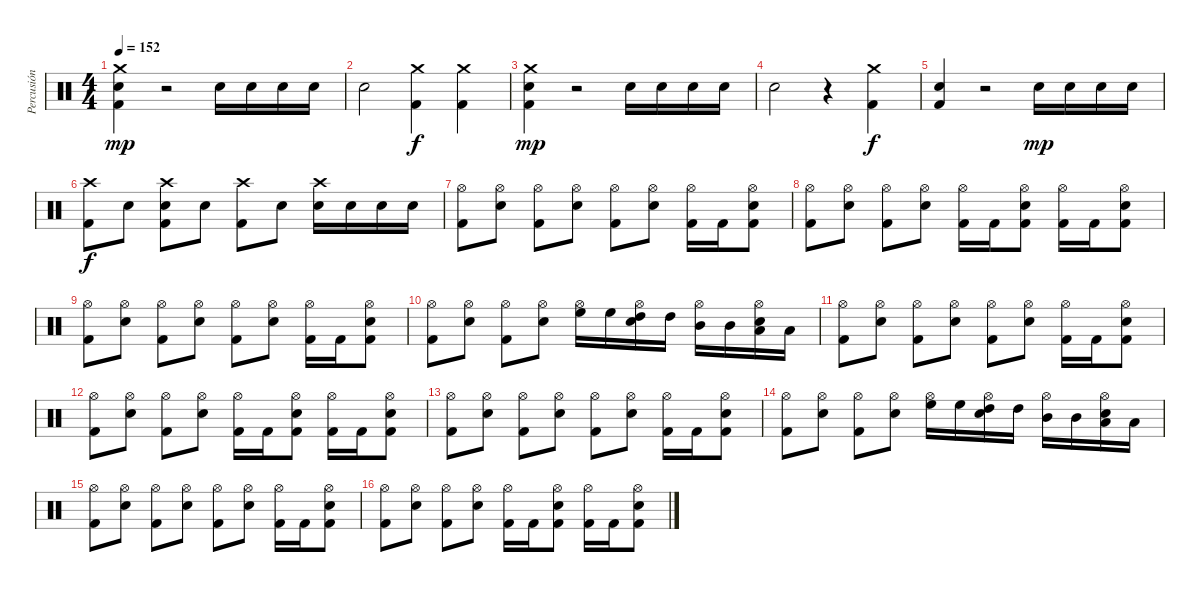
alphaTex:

\track ("Percusión" "Percusión") {instrument percussion}
\staff {score}
\articulation defaults
\ts (4 4)
\tempo 152
\clef neutral
\ks c
("Crash medium (hit)" "Snare (hit) 2" "Kick (hit) 2").4{dy mp} r.2 "Snare (hit) 2".16 "Snare (hit) 2".16 "Snare (hit) 2".16 "Snare (hit) 2".16 |
"Snare (hit) 2".2 ("Crash medium (hit)" "Kick (hit) 2").4{dy f} ("Crash medium (hit)" "Kick (hit) 2").4 |
("Crash medium (hit)" "Snare (hit) 2" "Kick (hit) 2").4{dy mp} r.2 "Snare (hit) 2".16 "Snare (hit) 2".16 "Snare (hit) 2".16 "Snare (hit) 2".16 |
"Snare (hit) 2".2 r.4 ("Crash medium (hit)" "Kick (hit) 2").4{dy f} |
("Snare (hit) 2" "Kick (hit) 2").4 r.2 "Snare (hit) 2".16{dy mp} "Snare (hit) 2".16 "Snare (hit) 2".16 "Snare (hit) 2".16 |
("Crash high (hit)" "Kick (hit) 2").8{dy f} "Snare (hit) 2".8 ("Crash high (hit)" "Snare (hit) 2" "Kick (hit) 2").8 "Snare (hit) 2".8 ("Crash high (hit)" "Kick (hit) 2").8 "Snare (hit) 2".8 ("Crash high (hit)" "Snare (hit) 2").16 "Snare (hit) 2".16 "Snare (hit) 2".16 "Snare (hit) 2".16 |
("Hi-Hat (open)" "Kick (hit) 2").8 ("Hi-Hat (open)" "Snare (hit) 2").8 ("Hi-Hat (open)" "Kick (hit) 2").8 ("Hi-Hat (open)" "Snare (hit) 2").8 ("Hi-Hat (open)" "Kick (hit) 2").8 ("Hi-Hat (open)" "Snare (hit) 2").8 ("Hi-Hat (open)" "Kick (hit) 2").16 "Kick (hit) 2".16 ("Hi-Hat (open)" "Snare (hit) 2" "Kick (hit) 2").8 |
("Hi-Hat (open)" "Kick (hit) 2").8 ("Hi-Hat (open)" "Snare (hit) 2").8 ("Hi-Hat (open)" "Kick (hit) 2").8 ("Hi-Hat (open)" "Snare (hit) 2").8 ("Hi-Hat (open)" "Kick (hit) 2").16 "Kick (hit) 2".16 ("Hi-Hat (open)" "Snare (hit) 2" "Kick (hit) 2").8 ("Hi-Hat (open)" "Kick (hit) 2").16 "Kick (hit) 2".16 ("Hi-Hat (open)" "Snare (hit) 2" "Kick (hit) 2").8 |
("Hi-Hat (open)" "Kick (hit) 2").8 ("Hi-Hat (open)" "Snare (hit) 2").8 ("Hi-Hat (open)" "Kick (hit) 2").8 ("Hi-Hat (open)" "Snare (hit) 2").8 ("Hi-Hat (open)" "Kick (hit) 2").8 ("Hi-Hat (open)" "Snare (hit) 2").8 ("Hi-Hat (open)" "Kick (hit) 2").16 "Kick (hit) 2".16 ("Hi-Hat (open)" "Snare (hit) 2" "Kick (hit) 2").8 |
("Hi-Hat (open)" "Kick (hit) 2").8 ("Hi-Hat (open)" "Snare (hit) 2").8 ("Hi-Hat (open)" "Kick (hit) 2").8 ("Hi-Hat (open)" "Snare (hit) 2").8 ("Hi-Hat (open)" "High Floor Tom (hit)").16 "High Floor Tom (hit)".16 ("Hi-Hat (open)" "Snare (hit) 2" "High Tom (hit)").16 "High Tom (hit)".16 ("Hi-Hat (open)" "Mid Tom (hit)").16 "Mid Tom (hit)".16 ("Hi-Hat (open)" "Snare (hit) 2" "Low Tom (hit)").16 "Low Tom (hit)".16 |
("Hi-Hat (open)" "Kick (hit) 2").8 ("Hi-Hat (open)" "Snare (hit) 2").8 ("Hi-Hat (open)" "Kick (hit) 2").8 ("Hi-Hat (open)" "Snare (hit) 2").8 ("Hi-Hat (open)" "Kick (hit) 2").8 ("Hi-Hat (open)" "Snare (hit) 2").8 ("Hi-Hat (open)" "Kick (hit) 2").16 "Kick (hit) 2".16 ("Hi-Hat (open)" "Snare (hit) 2" "Kick (hit) 2").8 |
("Hi-Hat (open)" "Kick (hit) 2").8 ("Hi-Hat (open)" "Snare (hit) 2").8 ("Hi-Hat (open)" "Kick (hit) 2").8 ("Hi-Hat (open)" "Snare (hit) 2").8 ("Hi-Hat (open)" "Kick (hit) 2").16 "Kick (hit) 2".16 ("Hi-Hat (open)" "Snare (hit) 2" "Kick (hit) 2").8 ("Hi-Hat (open)" "Kick (hit) 2").16 "Kick (hit) 2".16 ("Hi-Hat (open)" "Snare (hit) 2" "Kick (hit) 2").8 |
("Hi-Hat (open)" "Kick (hit) 2").8 ("Hi-Hat (open)" "Snare (hit) 2").8 ("Hi-Hat (open)" "Kick (hit) 2").8 ("Hi-Hat (open)" "Snare (hit) 2").8 ("Hi-Hat (open)" "Kick (hit) 2").8 ("Hi-Hat (open)" "Snare (hit) 2").8 ("Hi-Hat (open)" "Kick (hit) 2").16 "Kick (hit) 2".16 ("Hi-Hat (open)" "Snare (hit) 2" "Kick (hit) 2").8 |
("Hi-Hat (open)" "Kick (hit) 2").8 ("Hi-Hat (open)" "Snare (hit) 2").8 ("Hi-Hat (open)" "Kick (hit) 2").8 ("Hi-Hat (open)" "Snare (hit) 2").8 ("Hi-Hat (open)" "High Floor Tom (hit)").16 "High Floor Tom (hit)".16 ("Hi-Hat (open)" "Snare (hit) 2" "High Tom (hit)").16 "High Tom (hit)".16 ("Hi-Hat (open)" "Mid Tom (hit)").16 "Mid Tom (hit)".16 ("Hi-Hat (open)" "Snare (hit) 2" "Low Tom (hit)").16 "Low Tom (hit)".16 |
("Hi-Hat (open)" "Kick (hit) 2").8 ("Hi-Hat (open)" "Snare (hit) 2").8 ("Hi-Hat (open)" "Kick (hit) 2").8 ("Hi-Hat (open)" "Snare (hit) 2").8 ("Hi-Hat (open)" "Kick (hit) 2").8 ("Hi-Hat (open)" "Snare (hit) 2").8 ("Hi-Hat (open)" "Kick (hit) 2").16 "Kick (hit) 2".16 ("Hi-Hat (open)" "Snare (hit) 2" "Kick (hit) 2").8 |
("Hi-Hat (open)" "Kick (hit) 2").8 ("Hi-Hat (open)" "Snare (hit) 2").8 ("Hi-Hat (open)" "Kick (hit) 2").8 ("Hi-Hat (open)" "Snare (hit) 2").8 ("Hi-Hat (open)" "Kick (hit) 2").16 "Kick (hit) 2".16 ("Hi-Hat (open)" "Snare (hit) 2" "Kick (hit) 2").8 ("Hi-Hat (open)" "Kick (hit) 2").16 "Kick (hit) 2".16 ("Hi-Hat (open)" "Snare (hit) 2" "Kick (hit) 2").8
